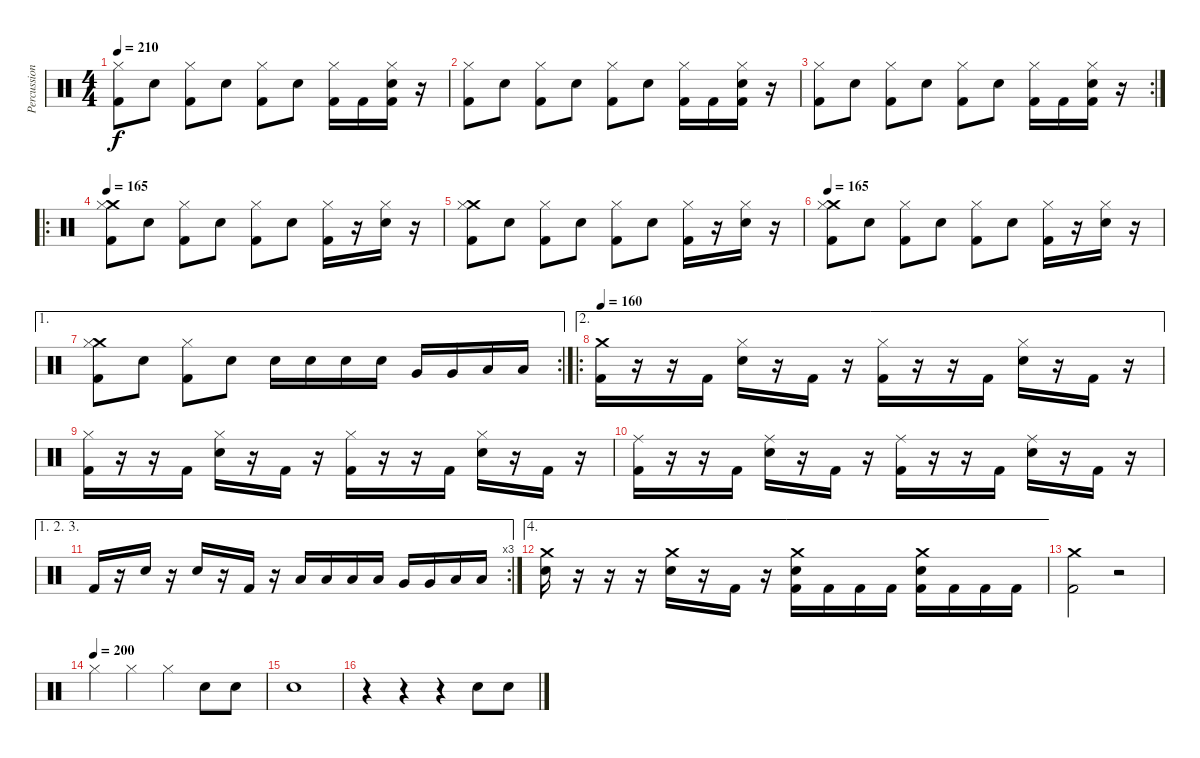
\track ("Percussion" "Percussion") {instrument percussion}
\staff {score}
\articulation defaults
\ts (4 4)
\tempo 210
\clef neutral
\ks c
("Hi-Hat (closed)" "Kick (hit) 2").8{dy f} "Snare (hit) 2".8 ("Hi-Hat (closed)" "Kick (hit) 2").8 "Snare (hit) 2".8 ("Hi-Hat (closed)" "Kick (hit) 2").8 "Snare (hit) 2".8 ("Hi-Hat (closed)" "Kick (hit) 2").16 "Kick (hit) 2".16 ("Hi-Hat (closed)" "Snare (hit) 2" "Kick (hit) 2").16 r.16 |
("Hi-Hat (closed)" "Kick (hit) 2").8 "Snare (hit) 2".8 ("Hi-Hat (closed)" "Kick (hit) 2").8 "Snare (hit) 2".8 ("Hi-Hat (closed)" "Kick (hit) 2").8 "Snare (hit) 2".8 ("Hi-Hat (closed)" "Kick (hit) 2").16 "Kick (hit) 2".16 ("Hi-Hat (closed)" "Snare (hit) 2" "Kick (hit) 2").16 r.16 |
\rc 2
("Hi-Hat (closed)" "Kick (hit) 2").8 "Snare (hit) 2".8 ("Hi-Hat (closed)" "Kick (hit) 2").8 "Snare (hit) 2".8 ("Hi-Hat (closed)" "Kick (hit) 2").8 "Snare (hit) 2".8 ("Hi-Hat (closed)" "Kick (hit) 2").16 "Kick (hit) 2".16 ("Hi-Hat (closed)" "Snare (hit) 2" "Kick (hit) 2").16 r.16 |
\ro
\tempo 165
("Crash medium (hit)" "Hi-Hat (closed)" "Kick (hit) 2").8 "Snare (hit) 2".8 ("Hi-Hat (closed)" "Kick (hit) 2").8 "Snare (hit) 2".8 ("Hi-Hat (closed)" "Kick (hit) 2").8 "Snare (hit) 2".8 ("Hi-Hat (closed)" "Kick (hit) 2").16 r.16 ("Hi-Hat (closed)" "Snare (hit) 2").16 r.16 |
("Crash medium (hit)" "Hi-Hat (closed)" "Kick (hit) 2").8 "Snare (hit) 2".8 ("Hi-Hat (closed)" "Kick (hit) 2").8 "Snare (hit) 2".8 ("Hi-Hat (closed)" "Kick (hit) 2").8 "Snare (hit) 2".8 ("Hi-Hat (closed)" "Kick (hit) 2").16 r.16 ("Hi-Hat (closed)" "Snare (hit) 2").16 r.16 |
\tempo 165
("Crash medium (hit)" "Hi-Hat (closed)" "Kick (hit) 2").8 "Snare (hit) 2".8 ("Hi-Hat (closed)" "Kick (hit) 2").8 "Snare (hit) 2".8 ("Hi-Hat (closed)" "Kick (hit) 2").8 "Snare (hit) 2".8 ("Hi-Hat (closed)" "Kick (hit) 2").16 r.16 ("Hi-Hat (closed)" "Snare (hit) 2").16 r.16 |
\ae 1
\rc 2
("Crash medium (hit)" "Hi-Hat (closed)" "Kick (hit) 2").8 "Snare (hit) 2".8 ("Hi-Hat (closed)" "Kick (hit) 2").8 "Snare (hit) 2".8 "Snare (hit) 2".16 "Snare (hit) 2".16 "Snare (hit) 2".16 "Snare (hit) 2".16 "Very Low Tom (hit)".16 "Very Low Tom (hit)".16 "Low Floor Tom (hit)".16 "Low Floor Tom (hit)".16 |
\ae 2
\ro
\tempo 160
("Crash medium (hit)" "Kick (hit) 2").16 r.16 r.16 "Kick (hit) 2".16 ("Hi-Hat (closed)" "Snare (hit) 2").16 r.16 "Kick (hit) 2".16 r.16 ("Hi-Hat (closed)" "Kick (hit) 2").16 r.16 r.16 "Kick (hit) 2".16 ("Hi-Hat (closed)" "Snare (hit) 2").16 r.16 "Kick (hit) 2".16 r.16 |
("Hi-Hat (closed)" "Kick (hit) 2").16 r.16 r.16 "Kick (hit) 2".16 ("Hi-Hat (closed)" "Snare (hit) 2").16 r.16 "Kick (hit) 2".16 r.16 ("Hi-Hat (closed)" "Kick (hit) 2").16 r.16 r.16 "Kick (hit) 2".16 ("Hi-Hat (closed)" "Snare (hit) 2").16 r.16 "Kick (hit) 2".16 r.16 |
("Ride (middle)" "Kick (hit) 2").16 r.16 r.16 "Kick (hit) 2".16 ("Ride (middle)" "Snare (hit) 2").16 r.16 "Kick (hit) 2".16 r.16 ("Ride (middle)" "Kick (hit) 2").16 r.16 r.16 "Kick (hit) 2".16 ("Ride (middle)" "Snare (hit) 2").16 r.16 "Kick (hit) 2".16 r.16 |
\ae (1 2 3)
\rc 3 "Kick (hit) 2".16
r.16 "Snare (hit) 2".16 r.16 "Snare (hit) 2".16 r.16 "Kick (hit) 2".16 r.16 "Low Tom (hit)".16 "Low Tom (hit)".16 "Low Tom (hit)".16 "Low Tom (hit)".16 "Very Low Tom (hit)".16 "Very Low Tom (hit)".16 "Low Floor Tom (hit)".16 "Low Floor Tom (hit)".16 |
\ae 4
("Crash medium (hit)" "Snare (hit) 2").16 r.16 r.16 r.16 ("Crash medium (hit)" "Snare (hit) 2").16 r.16 "Kick (hit) 2".16 r.16 ("Crash medium (hit)" "Snare (hit) 2" "Kick (hit) 2").16 "Kick (hit) 2".16 "Kick (hit) 2".16 "Kick (hit) 2".16 ("Crash medium (hit)" "Snare (hit) 2" "Kick (hit) 2").16 "Kick (hit) 2".16 "Kick (hit) 2".16 "Kick (hit) 2".16 |
("Crash medium (hit)" "Kick (hit) 2").2 r.2 |
\tempo (200)
"Hi-Hat (closed)".4 "Hi-Hat (closed)".4 "Hi-Hat (closed)".4 "Snare (hit) 2".8 "Snare (hit) 2".8 |
"Snare (hit) 2".1 |
r.4 r.4 r.4 "Snare (hit) 2".8 "Snare (hit) 2".8
